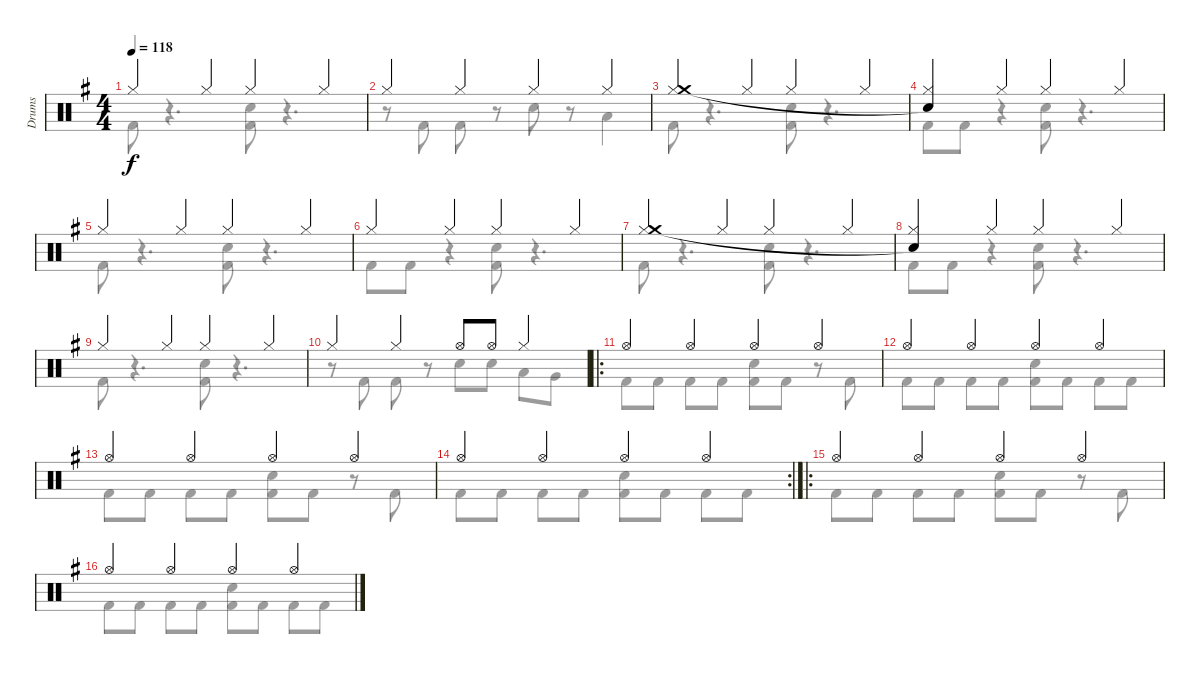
\track ("Drums" "Drums") {instrument percussion}
\staff {score}
\articulation defaults
\voice
\ts (4 4)
\tempo 118
\clef neutral
\ks eminor "Hi-Hat (closed)".4{dy f} "Hi-Hat (closed)".4 "Hi-Hat (closed)".4 "Hi-Hat (closed)".4
|
"Hi-Hat (closed)".4 "Hi-Hat (closed)".4 "Hi-Hat (closed)".4 "Hi-Hat (closed)".4 |
("Hi-Hat (closed)" "Crash medium (hit)").4 "Hi-Hat (closed)".4 "Hi-Hat (closed)".4 "Hi-Hat (closed)".4 |
("Hi-Hat (closed)" "Snare (hit)"{t}).4 "Hi-Hat (closed)".4 "Hi-Hat (closed)".4 "Hi-Hat (closed)".4 |
"Hi-Hat (closed)".4 "Hi-Hat (closed)".4 "Hi-Hat (closed)".4 "Hi-Hat (closed)".4 |
"Hi-Hat (closed)".4 "Hi-Hat (closed)".4 "Hi-Hat (closed)".4 "Hi-Hat (closed)".4 |
("Hi-Hat (closed)" "Crash medium (hit)").4 "Hi-Hat (closed)".4 "Hi-Hat (closed)".4 "Hi-Hat (closed)".4 |
("Hi-Hat (closed)" "Snare (hit)"{t}).4 "Hi-Hat (closed)".4 "Hi-Hat (closed)".4 "Hi-Hat (closed)".4 |
"Hi-Hat (closed)".4 "Hi-Hat (closed)".4 "Hi-Hat (closed)".4 "Hi-Hat (closed)".4 |
"Hi-Hat (closed)".4 "Hi-Hat (closed)".4 "Hi-Hat (open)".8 "Hi-Hat (open)".8 "Hi-Hat (closed)".4 |
\ro "Hi-Hat (open)".4{volume 16} "Hi-Hat (open)".4 "Hi-Hat (open)".4 "Hi-Hat (open)".4
|
"Hi-Hat (open)".4 "Hi-Hat (open)".4 "Hi-Hat (open)".4 "Hi-Hat (open)".4 |
"Hi-Hat (open)".4 "Hi-Hat (open)".4 "Hi-Hat (open)".4 "Hi-Hat (open)".4 |
\rc 2 "Hi-Hat (open)".4 "Hi-Hat (open)".4 "Hi-Hat (open)".4 "Hi-Hat (open)".4
|
\ro "Hi-Hat (open)".4 "Hi-Hat (open)".4 "Hi-Hat (open)".4 "Hi-Hat (open)".4
|
"Hi-Hat (open)".4 "Hi-Hat (open)".4 "Hi-Hat (open)".4 "Hi-Hat (open)".4
\voice
\clef neutral
\ottava regular
\simile none
\ks eminor "Kick (hit) 2".8{dy f}
r.4{d} ("Kick (hit) 2" "Electric Snare (hit)").8 r.4{d} |
r.8 "Kick (hit) 2".8 "Kick (hit) 2".8 r.8 "Electric Snare (hit)".8 r.8 "Low Tom (hit)".4 |
"Kick (hit) 2".8 r.4{d} ("Kick (hit) 2" "Electric Snare (hit)").8 r.4{d} |
"Kick (hit) 2".8 "Kick (hit) 2".8 r.4 ("Kick (hit) 2" "Electric Snare (hit)").8 r.4{d} |
"Kick (hit) 2".8 r.4{d} ("Kick (hit) 2" "Electric Snare (hit)").8 r.4{d} |
"Kick (hit) 2".8 "Kick (hit) 2".8 r.4 ("Kick (hit) 2" "Electric Snare (hit)").8 r.4{d} |
"Kick (hit) 2".8 r.4{d} ("Kick (hit) 2" "Electric Snare (hit)").8 r.4{d} |
"Kick (hit) 2".8 "Kick (hit) 2".8 r.4 ("Kick (hit) 2" "Electric Snare (hit)").8 r.4{d} |
"Kick (hit) 2".8 r.4{d} ("Kick (hit) 2" "Electric Snare (hit)").8 r.4{d} |
r.8 "Kick (hit) 2".8 "Kick (hit) 2".8 r.8 "Electric Snare (hit)".8 "Electric Snare (hit)".8 "Low Tom (hit)".8 "Very Low Tom (hit)".8 |
"Kick (hit) 2".8 "Kick (hit) 2".8 "Kick (hit) 2".8 "Kick (hit) 2".8 ("Kick (hit) 2" "Electric Snare (hit)").8 "Kick (hit) 2".8 r.8 "Kick (hit) 2".8 |
"Kick (hit) 2".8 "Kick (hit) 2".8 "Kick (hit) 2".8 "Kick (hit) 2".8 ("Kick (hit) 2" "Electric Snare (hit)").8 "Kick (hit) 2".8 "Kick (hit) 2".8 "Kick (hit) 2".8 |
"Kick (hit) 2".8 "Kick (hit) 2".8 "Kick (hit) 2".8 "Kick (hit) 2".8 ("Kick (hit) 2" "Electric Snare (hit)").8 "Kick (hit) 2".8 r.8 "Kick (hit) 2".8 |
"Kick (hit) 2".8 "Kick (hit) 2".8 "Kick (hit) 2".8 "Kick (hit) 2".8 ("Kick (hit) 2" "Electric Snare (hit)").8 "Kick (hit) 2".8 "Kick (hit) 2".8 "Kick (hit) 2".8 |
"Kick (hit) 2".8 "Kick (hit) 2".8 "Kick (hit) 2".8 "Kick (hit) 2".8 ("Kick (hit) 2" "Electric Snare (hit)").8 "Kick (hit) 2".8 r.8 "Kick (hit) 2".8 |
"Kick (hit) 2".8 "Kick (hit) 2".8 "Kick (hit) 2".8 "Kick (hit) 2".8 ("Kick (hit) 2" "Electric Snare (hit)").8 "Kick (hit) 2".8 "Kick (hit) 2".8 "Kick (hit) 2".8
